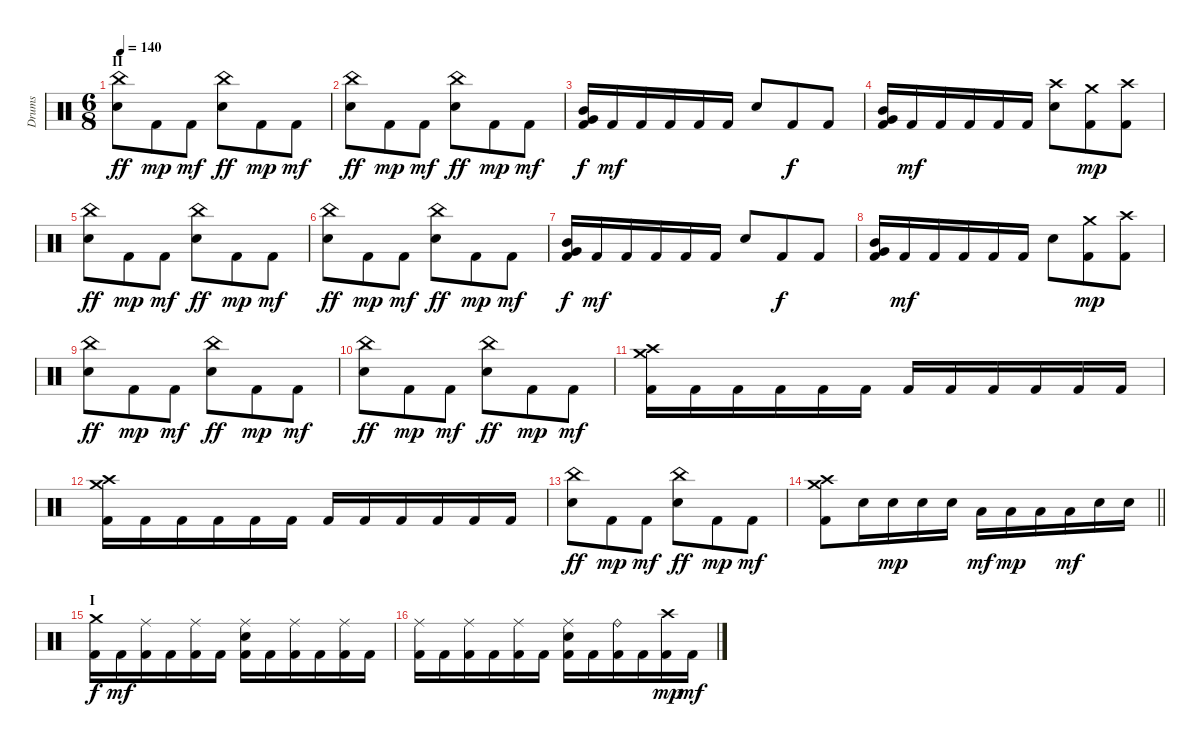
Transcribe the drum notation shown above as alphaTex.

\track ("Drums" "Drums") {instrument percussion}
\staff {score}
\articulation defaults
\ts (6 8)
\section ("" "II")
\tempo 140
\clef neutral
\ks c
("Electric Snare (hit)" "China (hit)").8{dy ff} "Kick (hit) 2".8{dy mp} "Kick (hit) 2".8{dy mf} ("Electric Snare (hit)" "China (hit)").8{dy ff} "Kick (hit) 2".8{dy mp} "Kick (hit) 2".8{dy mf} |
("Electric Snare (hit)" "China (hit)").8{dy ff} "Kick (hit) 2".8{dy mp} "Kick (hit) 2".8{dy mf} ("Electric Snare (hit)" "China (hit)").8{dy ff} "Kick (hit) 2".8{dy mp} "Kick (hit) 2".8{dy mf} |
("Kick (hit) 2" "Very Low Tom (hit)" "Mid Tom (hit)").16{dy f} "Kick (hit) 2".16{dy mf} "Kick (hit) 2".16 "Kick (hit) 2".16 "Kick (hit) 2".16 "Kick (hit) 2".16 "Electric Snare (hit)".8 "Kick (hit) 2".8{dy f} "Kick (hit) 2".8 |
("Kick (hit) 2" "Very Low Tom (hit)" "Mid Tom (hit)").16 "Kick (hit) 2".16{dy mf} "Kick (hit) 2".16 "Kick (hit) 2".16 "Kick (hit) 2".16 "Kick (hit) 2".16 ("Electric Snare (hit)" "Crash high (hit)").8 ("Kick (hit) 2" "Crash medium (hit)").8{dy mp} ("Kick (hit) 2" "Crash high (hit)").8 |
("Electric Snare (hit)" "China (hit)").8{dy ff} "Kick (hit) 2".8{dy mp} "Kick (hit) 2".8{dy mf} ("Electric Snare (hit)" "China (hit)").8{dy ff} "Kick (hit) 2".8{dy mp} "Kick (hit) 2".8{dy mf} |
("Electric Snare (hit)" "China (hit)").8{dy ff} "Kick (hit) 2".8{dy mp} "Kick (hit) 2".8{dy mf} ("Electric Snare (hit)" "China (hit)").8{dy ff} "Kick (hit) 2".8{dy mp} "Kick (hit) 2".8{dy mf} |
("Kick (hit) 2" "Very Low Tom (hit)" "Mid Tom (hit)").16{dy f} "Kick (hit) 2".16{dy mf} "Kick (hit) 2".16 "Kick (hit) 2".16 "Kick (hit) 2".16 "Kick (hit) 2".16 "Electric Snare (hit)".8 "Kick (hit) 2".8{dy f} "Kick (hit) 2".8 |
("Kick (hit) 2" "Very Low Tom (hit)" "Mid Tom (hit)").16 "Kick (hit) 2".16{dy mf} "Kick (hit) 2".16 "Kick (hit) 2".16 "Kick (hit) 2".16 "Kick (hit) 2".16 "Electric Snare (hit)".8 ("Kick (hit) 2" "Crash medium (hit)").8{dy mp} ("Kick (hit) 2" "Crash high (hit)").8 |
("Electric Snare (hit)" "China (hit)").8{dy ff} "Kick (hit) 2".8{dy mp} "Kick (hit) 2".8{dy mf} ("Electric Snare (hit)" "China (hit)").8{dy ff} "Kick (hit) 2".8{dy mp} "Kick (hit) 2".8{dy mf} |
("Electric Snare (hit)" "China (hit)").8{dy ff} "Kick (hit) 2".8{dy mp} "Kick (hit) 2".8{dy mf} ("Electric Snare (hit)" "China (hit)").8{dy ff} "Kick (hit) 2".8{dy mp} "Kick (hit) 2".8{dy mf} |
("Kick (hit) 2" "Crash high (hit)" "Crash medium (hit)").16 "Kick (hit) 2".16 "Kick (hit) 2".16 "Kick (hit) 2".16 "Kick (hit) 2".16 "Kick (hit) 2".16 "Kick (hit) 2".16 "Kick (hit) 2".16 "Kick (hit) 2".16 "Kick (hit) 2".16 "Kick (hit) 2".16 "Kick (hit) 2".16 |
("Kick (hit) 2" "Crash high (hit)" "Crash medium (hit)").16 "Kick (hit) 2".16 "Kick (hit) 2".16 "Kick (hit) 2".16 "Kick (hit) 2".16 "Kick (hit) 2".16 "Kick (hit) 2".16 "Kick (hit) 2".16 "Kick (hit) 2".16 "Kick (hit) 2".16 "Kick (hit) 2".16 "Kick (hit) 2".16 |
("Electric Snare (hit)" "China (hit)").8{dy ff} "Kick (hit) 2".8{dy mp} "Kick (hit) 2".8{dy mf} ("Electric Snare (hit)" "China (hit)").8{dy ff} "Kick (hit) 2".8{dy mp} "Kick (hit) 2".8{dy mf} |
\barLineRight lightlight
("Kick (hit) 2" "Crash high (hit)" "Crash medium (hit)").8 "Electric Snare (hit)".16 "Electric Snare (hit)".16{dy mp} "Electric Snare (hit)".16 "Electric Snare (hit)".16 "Low Tom (hit)".16{dy mf} "Low Tom (hit)".16{dy mp} "Low Tom (hit)".16 "Low Tom (hit)".16{dy mf} "Electric Snare (hit)".16 "Electric Snare (hit)".16 |
\section ("" "I")
("Kick (hit) 2" "Crash medium (hit)").16{dy f} "Kick (hit) 2".16{dy mf} ("Kick (hit) 2" "Ride (middle)").16 "Kick (hit) 2".16 ("Kick (hit) 2" "Ride (middle)").16 "Kick (hit) 2".16 ("Kick (hit) 2" "Electric Snare (hit)" "Ride (middle)").16 "Kick (hit) 2".16 ("Kick (hit) 2" "Ride (middle)").16 "Kick (hit) 2".16 ("Kick (hit) 2" "Ride (middle)").16 "Kick (hit) 2".16 |
("Kick (hit) 2" "Ride (middle)").16 "Kick (hit) 2".16 ("Kick (hit) 2" "Ride (middle)").16 "Kick (hit) 2".16 ("Kick (hit) 2" "Ride (middle)").16 "Kick (hit) 2".16 ("Kick (hit) 2" "Electric Snare (hit)" "Ride (middle)").16 "Kick (hit) 2".16 ("Kick (hit) 2" "Ride (bell)").16 "Kick (hit) 2".16 ("Kick (hit) 2" "Crash high (hit)").16{dy mp} "Kick (hit) 2".16{dy mf}
